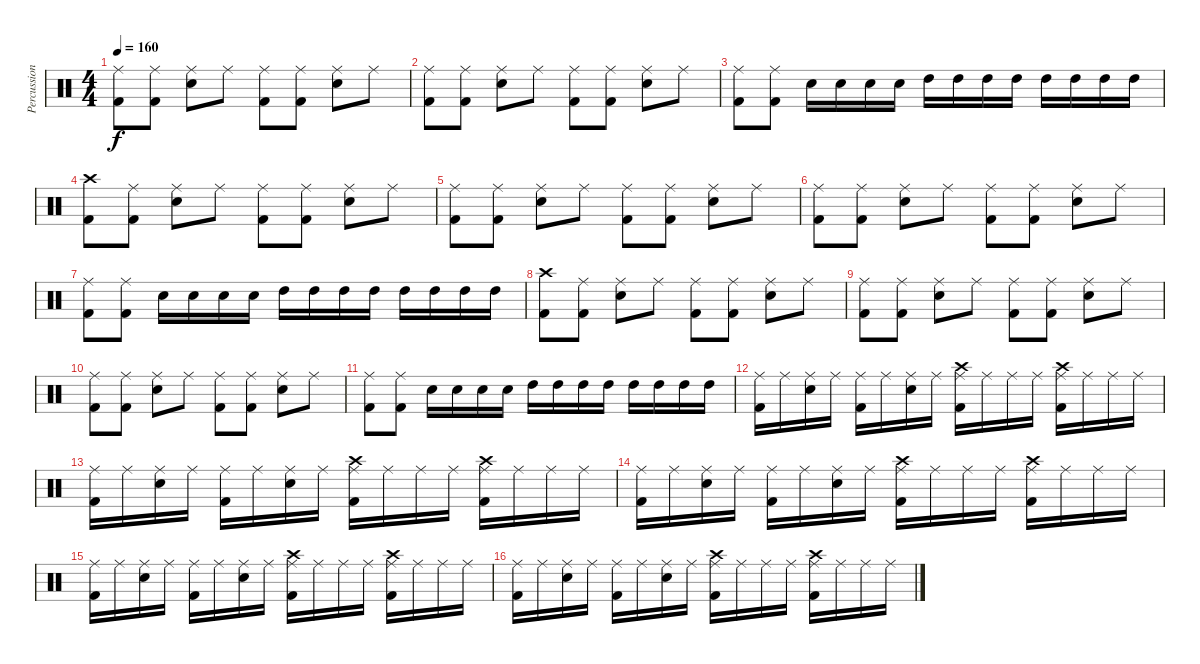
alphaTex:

\track ("Percussion" "Percussion") {instrument percussion}
\staff {score}
\articulation defaults
\ts (4 4)
\tempo 160
\clef neutral
\ks c
("Kick (hit) 2" "Ride (middle)").8{dy f} ("Kick (hit) 2" "Ride (middle)").8 ("Snare (hit) 2" "Ride (middle)").8 "Ride (middle)".8 ("Kick (hit) 2" "Ride (middle)").8 ("Kick (hit) 2" "Ride (middle)").8 ("Snare (hit) 2" "Ride (middle)").8 "Ride (middle)".8 |
("Kick (hit) 2" "Ride (middle)").8 ("Kick (hit) 2" "Ride (middle)").8 ("Snare (hit) 2" "Ride (middle)").8 "Ride (middle)".8 ("Kick (hit) 2" "Ride (middle)").8 ("Kick (hit) 2" "Ride (middle)").8 ("Snare (hit) 2" "Ride (middle)").8 "Ride (middle)".8 |
("Kick (hit) 2" "Ride (middle)").8 ("Kick (hit) 2" "Ride (middle)").8 "Snare (hit) 2".16 "Snare (hit) 2".16 "Snare (hit) 2".16 "Snare (hit) 2".16 "High Tom (hit)".16 "High Tom (hit)".16 "High Tom (hit)".16 "High Tom (hit)".16 "High Tom (hit)".16 "High Tom (hit)".16 "High Tom (hit)".16 "High Tom (hit)".16 |
("Kick (hit) 2" "Crash high (hit)").8 ("Kick (hit) 2" "Ride (middle)").8 ("Snare (hit) 2" "Ride (middle)").8 "Ride (middle)".8 ("Kick (hit) 2" "Ride (middle)").8 ("Kick (hit) 2" "Ride (middle)").8 ("Snare (hit) 2" "Ride (middle)").8 "Ride (middle)".8 |
("Kick (hit) 2" "Ride (middle)").8 ("Kick (hit) 2" "Ride (middle)").8 ("Snare (hit) 2" "Ride (middle)").8 "Ride (middle)".8 ("Kick (hit) 2" "Ride (middle)").8 ("Kick (hit) 2" "Ride (middle)").8 ("Snare (hit) 2" "Ride (middle)").8 "Ride (middle)".8 |
("Kick (hit) 2" "Ride (middle)").8 ("Kick (hit) 2" "Ride (middle)").8 ("Snare (hit) 2" "Ride (middle)").8 "Ride (middle)".8 ("Kick (hit) 2" "Ride (middle)").8 ("Kick (hit) 2" "Ride (middle)").8 ("Snare (hit) 2" "Ride (middle)").8 "Ride (middle)".8 |
("Kick (hit) 2" "Ride (middle)").8 ("Kick (hit) 2" "Ride (middle)").8 "Snare (hit) 2".16 "Snare (hit) 2".16 "Snare (hit) 2".16 "Snare (hit) 2".16 "High Tom (hit)".16 "High Tom (hit)".16 "High Tom (hit)".16 "High Tom (hit)".16 "High Tom (hit)".16 "High Tom (hit)".16 "High Tom (hit)".16 "High Tom (hit)".16 |
("Kick (hit) 2" "Crash high (hit)").8 ("Kick (hit) 2" "Ride (middle)").8 ("Snare (hit) 2" "Ride (middle)").8 "Ride (middle)".8 ("Kick (hit) 2" "Ride (middle)").8 ("Kick (hit) 2" "Ride (middle)").8 ("Snare (hit) 2" "Ride (middle)").8 "Ride (middle)".8 |
("Kick (hit) 2" "Ride (middle)").8 ("Kick (hit) 2" "Ride (middle)").8 ("Snare (hit) 2" "Ride (middle)").8 "Ride (middle)".8 ("Kick (hit) 2" "Ride (middle)").8 ("Kick (hit) 2" "Ride (middle)").8 ("Snare (hit) 2" "Ride (middle)").8 "Ride (middle)".8 |
("Kick (hit) 2" "Ride (middle)").8 ("Kick (hit) 2" "Ride (middle)").8 ("Snare (hit) 2" "Ride (middle)").8 "Ride (middle)".8 ("Kick (hit) 2" "Ride (middle)").8 ("Kick (hit) 2" "Ride (middle)").8 ("Snare (hit) 2" "Ride (middle)").8 "Ride (middle)".8 |
("Kick (hit) 2" "Ride (middle)").8 ("Kick (hit) 2" "Ride (middle)").8 "Snare (hit) 2".16 "Snare (hit) 2".16 "Snare (hit) 2".16 "Snare (hit) 2".16 "High Tom (hit)".16 "High Tom (hit)".16 "High Tom (hit)".16 "High Tom (hit)".16 "High Tom (hit)".16 "High Tom (hit)".16 "High Tom (hit)".16 "High Tom (hit)".16 |
("Kick (hit) 2" "Ride (middle)").16 "Ride (middle)".16 ("Snare (hit) 2" "Ride (middle)").16 "Ride (middle)".16 ("Kick (hit) 2" "Ride (middle)").16 "Ride (middle)".16 ("Snare (hit) 2" "Ride (middle)").16 "Ride (middle)".16 ("Kick (hit) 2" "Crash high (hit)" "Ride (middle)").16 "Ride (middle)".16 "Ride (middle)".16 "Ride (middle)".16 ("Kick (hit) 2" "Crash high (hit)" "Ride (middle)").16 "Ride (middle)".16 "Ride (middle)".16 "Ride (middle)".16 |
("Kick (hit) 2" "Ride (middle)").16 "Ride (middle)".16 ("Snare (hit) 2" "Ride (middle)").16 "Ride (middle)".16 ("Kick (hit) 2" "Ride (middle)").16 "Ride (middle)".16 ("Snare (hit) 2" "Ride (middle)").16 "Ride (middle)".16 ("Kick (hit) 2" "Crash high (hit)" "Ride (middle)").16 "Ride (middle)".16 "Ride (middle)".16 "Ride (middle)".16 ("Kick (hit) 2" "Crash high (hit)" "Ride (middle)").16 "Ride (middle)".16 "Ride (middle)".16 "Ride (middle)".16 |
("Kick (hit) 2" "Ride (middle)").16 "Ride (middle)".16 ("Snare (hit) 2" "Ride (middle)").16 "Ride (middle)".16 ("Kick (hit) 2" "Ride (middle)").16 "Ride (middle)".16 ("Snare (hit) 2" "Ride (middle)").16 "Ride (middle)".16 ("Kick (hit) 2" "Crash high (hit)" "Ride (middle)").16 "Ride (middle)".16 "Ride (middle)".16 "Ride (middle)".16 ("Kick (hit) 2" "Crash high (hit)" "Ride (middle)").16 "Ride (middle)".16 "Ride (middle)".16 "Ride (middle)".16 |
("Kick (hit) 2" "Ride (middle)").16 "Ride (middle)".16 ("Snare (hit) 2" "Ride (middle)").16 "Ride (middle)".16 ("Kick (hit) 2" "Ride (middle)").16 "Ride (middle)".16 ("Snare (hit) 2" "Ride (middle)").16 "Ride (middle)".16 ("Kick (hit) 2" "Crash high (hit)" "Ride (middle)").16 "Ride (middle)".16 "Ride (middle)".16 "Ride (middle)".16 ("Kick (hit) 2" "Crash high (hit)" "Ride (middle)").16 "Ride (middle)".16 "Ride (middle)".16 "Ride (middle)".16 |
("Kick (hit) 2" "Ride (middle)").16 "Ride (middle)".16 ("Snare (hit) 2" "Ride (middle)").16 "Ride (middle)".16 ("Kick (hit) 2" "Ride (middle)").16 "Ride (middle)".16 ("Snare (hit) 2" "Ride (middle)").16 "Ride (middle)".16 ("Kick (hit) 2" "Crash high (hit)" "Ride (middle)").16 "Ride (middle)".16 "Ride (middle)".16 "Ride (middle)".16 ("Kick (hit) 2" "Crash high (hit)" "Ride (middle)").16 "Ride (middle)".16 "Ride (middle)".16 "Ride (middle)".16
